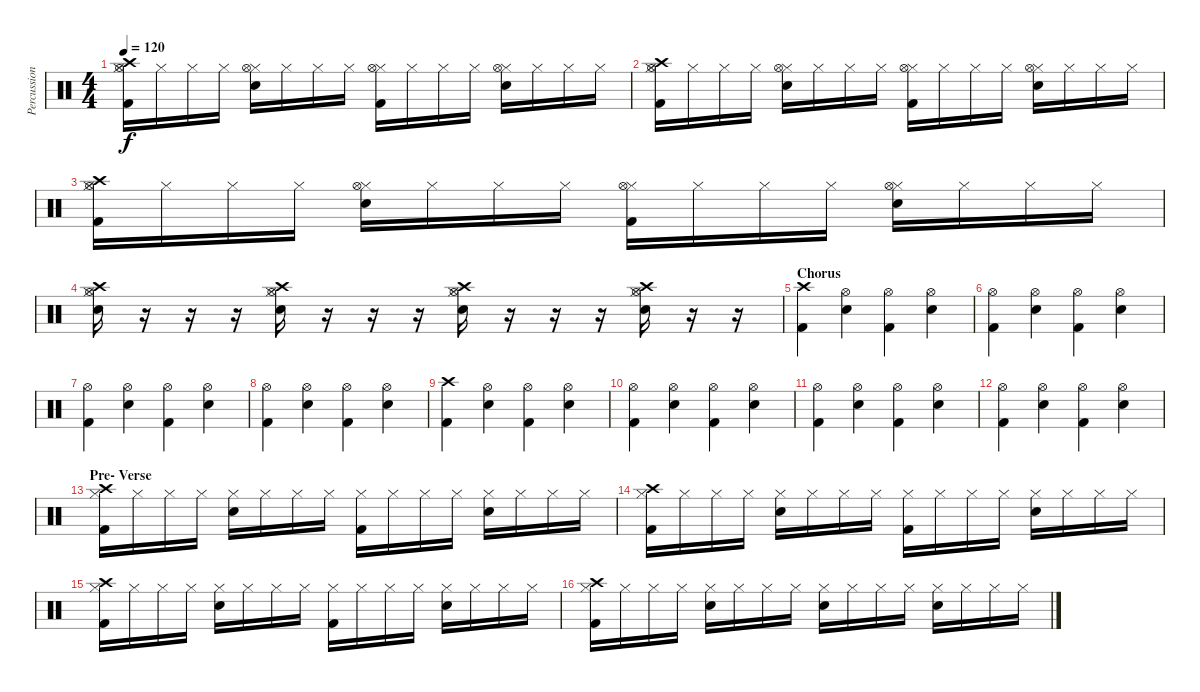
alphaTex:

\track ("Percussion" "Percussion") {instrument percussion}
\staff {score}
\articulation defaults
\ts (4 4)
\tempo 120
\clef neutral
\ks c
("Hi-Hat (closed)" "Kick (hit) 2" "Crash high (hit)" "Hi-Hat (open)").16{dy f} "Hi-Hat (closed)".16 "Hi-Hat (closed)".16 "Hi-Hat (closed)".16 ("Hi-Hat (closed)" "Snare (hit) 2" "Hi-Hat (open)").16 "Hi-Hat (closed)".16 "Hi-Hat (closed)".16 "Hi-Hat (closed)".16 ("Hi-Hat (closed)" "Kick (hit) 2" "Hi-Hat (open)").16 "Hi-Hat (closed)".16 "Hi-Hat (closed)".16 "Hi-Hat (closed)".16 ("Hi-Hat (closed)" "Snare (hit) 2" "Hi-Hat (open)").16 "Hi-Hat (closed)".16 "Hi-Hat (closed)".16 "Hi-Hat (closed)".16 |
("Hi-Hat (closed)" "Kick (hit) 2" "Crash high (hit)" "Hi-Hat (open)").16 "Hi-Hat (closed)".16 "Hi-Hat (closed)".16 "Hi-Hat (closed)".16 ("Hi-Hat (closed)" "Snare (hit) 2" "Hi-Hat (open)").16 "Hi-Hat (closed)".16 "Hi-Hat (closed)".16 "Hi-Hat (closed)".16 ("Hi-Hat (closed)" "Kick (hit) 2" "Hi-Hat (open)").16 "Hi-Hat (closed)".16 "Hi-Hat (closed)".16 "Hi-Hat (closed)".16 ("Hi-Hat (closed)" "Snare (hit) 2" "Hi-Hat (open)").16 "Hi-Hat (closed)".16 "Hi-Hat (closed)".16 "Hi-Hat (closed)".16 |
("Hi-Hat (closed)" "Kick (hit) 2" "Crash high (hit)" "Hi-Hat (open)").16 "Hi-Hat (closed)".16 "Hi-Hat (closed)".16 "Hi-Hat (closed)".16 ("Hi-Hat (closed)" "Snare (hit) 2" "Hi-Hat (open)").16 "Hi-Hat (closed)".16 "Hi-Hat (closed)".16 "Hi-Hat (closed)".16 ("Hi-Hat (closed)" "Kick (hit) 2" "Hi-Hat (open)").16 "Hi-Hat (closed)".16 "Hi-Hat (closed)".16 "Hi-Hat (closed)".16 ("Hi-Hat (closed)" "Snare (hit) 2" "Hi-Hat (open)").16 "Hi-Hat (closed)".16 "Hi-Hat (closed)".16 "Hi-Hat (closed)".16 |
("Hi-Hat (closed)" "Snare (hit) 2" "Crash high (hit)" "Hi-Hat (open)").16 r.16 r.16 r.16 ("Hi-Hat (closed)" "Snare (hit) 2" "Crash high (hit)" "Hi-Hat (open)").16 r.16 r.16 r.16 ("Hi-Hat (closed)" "Snare (hit) 2" "Crash high (hit)" "Hi-Hat (open)").16 r.16 r.16 r.16 ("Hi-Hat (closed)" "Snare (hit) 2" "Crash high (hit)" "Hi-Hat (open)").16 r.16 r.16 |
\section ("" "Chorus")
("Crash high (hit)" "Kick (hit) 2").4 ("Hi-Hat (open)" "Snare (hit) 2").4 ("Hi-Hat (open)" "Kick (hit) 2").4 ("Hi-Hat (open)" "Snare (hit) 2").4 |
("Hi-Hat (open)" "Kick (hit) 2").4 ("Hi-Hat (open)" "Snare (hit) 2").4 ("Hi-Hat (open)" "Kick (hit) 2").4 ("Hi-Hat (open)" "Snare (hit) 2").4 |
("Hi-Hat (open)" "Kick (hit) 2").4 ("Hi-Hat (open)" "Snare (hit) 2").4 ("Hi-Hat (open)" "Kick (hit) 2").4 ("Hi-Hat (open)" "Snare (hit) 2").4 |
("Hi-Hat (open)" "Kick (hit) 2").4 ("Hi-Hat (open)" "Snare (hit) 2").4 ("Hi-Hat (open)" "Kick (hit) 2").4 ("Hi-Hat (open)" "Snare (hit) 2").4 |
("Crash high (hit)" "Kick (hit) 2").4 ("Hi-Hat (open)" "Snare (hit) 2").4 ("Hi-Hat (open)" "Kick (hit) 2").4 ("Hi-Hat (open)" "Snare (hit) 2").4 |
("Hi-Hat (open)" "Kick (hit) 2").4 ("Hi-Hat (open)" "Snare (hit) 2").4 ("Hi-Hat (open)" "Kick (hit) 2").4 ("Hi-Hat (open)" "Snare (hit) 2").4 |
("Hi-Hat (open)" "Kick (hit) 2").4 ("Hi-Hat (open)" "Snare (hit) 2").4 ("Hi-Hat (open)" "Kick (hit) 2").4 ("Hi-Hat (open)" "Snare (hit) 2").4 |
("Hi-Hat (open)" "Kick (hit) 2").4 ("Hi-Hat (open)" "Snare (hit) 2").4 ("Hi-Hat (open)" "Kick (hit) 2").4 ("Hi-Hat (open)" "Snare (hit) 2").4 |
\section ("" "Pre- Verse")
("Hi-Hat (closed)" "Kick (hit) 2" "Crash high (hit)").16 "Hi-Hat (closed)".16 "Hi-Hat (closed)".16 "Hi-Hat (closed)".16 ("Hi-Hat (closed)" "Snare (hit) 2").16 "Hi-Hat (closed)".16 "Hi-Hat (closed)".16 "Hi-Hat (closed)".16 ("Hi-Hat (closed)" "Kick (hit) 2").16 "Hi-Hat (closed)".16 "Hi-Hat (closed)".16 "Hi-Hat (closed)".16 ("Hi-Hat (closed)" "Snare (hit) 2").16 "Hi-Hat (closed)".16 "Hi-Hat (closed)".16 "Hi-Hat (closed)".16 |
("Hi-Hat (closed)" "Kick (hit) 2" "Crash high (hit)").16 "Hi-Hat (closed)".16 "Hi-Hat (closed)".16 "Hi-Hat (closed)".16 ("Hi-Hat (closed)" "Snare (hit) 2").16 "Hi-Hat (closed)".16 "Hi-Hat (closed)".16 "Hi-Hat (closed)".16 ("Hi-Hat (closed)" "Kick (hit) 2").16 "Hi-Hat (closed)".16 "Hi-Hat (closed)".16 "Hi-Hat (closed)".16 ("Hi-Hat (closed)" "Snare (hit) 2").16 "Hi-Hat (closed)".16 "Hi-Hat (closed)".16 "Hi-Hat (closed)".16 |
("Hi-Hat (closed)" "Kick (hit) 2" "Crash high (hit)").16 "Hi-Hat (closed)".16 "Hi-Hat (closed)".16 "Hi-Hat (closed)".16 ("Hi-Hat (closed)" "Snare (hit) 2").16 "Hi-Hat (closed)".16 "Hi-Hat (closed)".16 "Hi-Hat (closed)".16 ("Hi-Hat (closed)" "Kick (hit) 2").16 "Hi-Hat (closed)".16 "Hi-Hat (closed)".16 "Hi-Hat (closed)".16 ("Hi-Hat (closed)" "Snare (hit) 2").16 "Hi-Hat (closed)".16 "Hi-Hat (closed)".16 "Hi-Hat (closed)".16 |
("Hi-Hat (closed)" "Kick (hit) 2" "Crash high (hit)").16 "Hi-Hat (closed)".16 "Hi-Hat (closed)".16 "Hi-Hat (closed)".16 ("Hi-Hat (closed)" "Snare (hit) 2").16 "Hi-Hat (closed)".16 "Hi-Hat (closed)".16 "Hi-Hat (closed)".16 ("Hi-Hat (closed)" "Snare (hit) 2").16 "Hi-Hat (closed)".16 "Hi-Hat (closed)".16 "Hi-Hat (closed)".16 ("Hi-Hat (closed)" "Snare (hit) 2").16 "Hi-Hat (closed)".16 "Hi-Hat (closed)".16 "Hi-Hat (closed)".16
